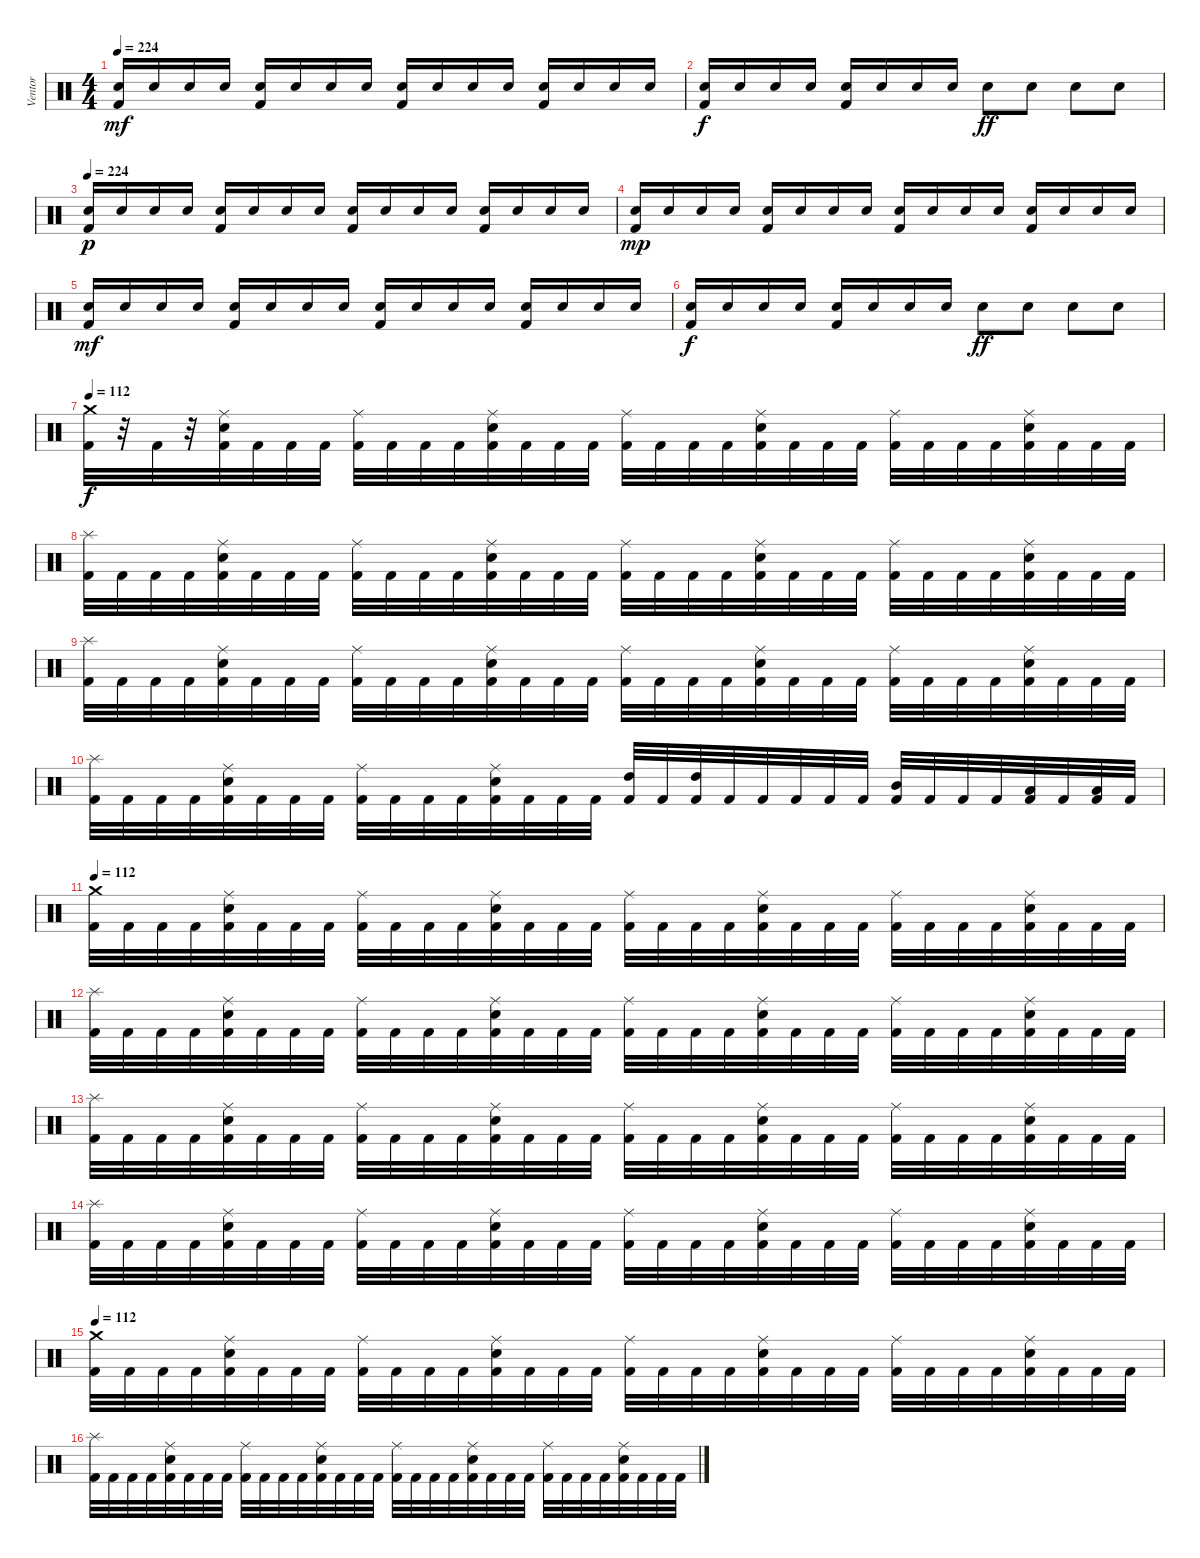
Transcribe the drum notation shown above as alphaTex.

\track ("Ventor" "Ventor") {instrument percussion}
\staff {score}
\articulation defaults
\ts (4 4)
\tempo 224
\clef neutral
\ks c
("Electric Snare (hit)" "Kick (hit) 2").16{dy mf} "Electric Snare (hit)".16 "Electric Snare (hit)".16 "Electric Snare (hit)".16 ("Electric Snare (hit)" "Kick (hit) 2").16 "Electric Snare (hit)".16 "Electric Snare (hit)".16 "Electric Snare (hit)".16 ("Electric Snare (hit)" "Kick (hit) 2").16 "Electric Snare (hit)".16 "Electric Snare (hit)".16 "Electric Snare (hit)".16 ("Electric Snare (hit)" "Kick (hit) 2").16 "Electric Snare (hit)".16 "Electric Snare (hit)".16 "Electric Snare (hit)".16 |
("Electric Snare (hit)" "Kick (hit) 2").16{dy f} "Electric Snare (hit)".16 "Electric Snare (hit)".16 "Electric Snare (hit)".16 ("Electric Snare (hit)" "Kick (hit) 2").16 "Electric Snare (hit)".16 "Electric Snare (hit)".16 "Electric Snare (hit)".16 "Electric Snare (hit)".8{dy ff} "Electric Snare (hit)".8 "Electric Snare (hit)".8 "Electric Snare (hit)".8 |
\tempo 224
("Electric Snare (hit)" "Kick (hit) 2").16{dy p} "Electric Snare (hit)".16 "Electric Snare (hit)".16 "Electric Snare (hit)".16 ("Electric Snare (hit)" "Kick (hit) 2").16 "Electric Snare (hit)".16 "Electric Snare (hit)".16 "Electric Snare (hit)".16 ("Electric Snare (hit)" "Kick (hit) 2").16 "Electric Snare (hit)".16 "Electric Snare (hit)".16 "Electric Snare (hit)".16 ("Electric Snare (hit)" "Kick (hit) 2").16 "Electric Snare (hit)".16 "Electric Snare (hit)".16 "Electric Snare (hit)".16 |
("Electric Snare (hit)" "Kick (hit) 2").16{dy mp} "Electric Snare (hit)".16 "Electric Snare (hit)".16 "Electric Snare (hit)".16 ("Electric Snare (hit)" "Kick (hit) 2").16 "Electric Snare (hit)".16 "Electric Snare (hit)".16 "Electric Snare (hit)".16 ("Electric Snare (hit)" "Kick (hit) 2").16 "Electric Snare (hit)".16 "Electric Snare (hit)".16 "Electric Snare (hit)".16 ("Electric Snare (hit)" "Kick (hit) 2").16 "Electric Snare (hit)".16 "Electric Snare (hit)".16 "Electric Snare (hit)".16 |
("Electric Snare (hit)" "Kick (hit) 2").16{dy mf} "Electric Snare (hit)".16 "Electric Snare (hit)".16 "Electric Snare (hit)".16 ("Electric Snare (hit)" "Kick (hit) 2").16 "Electric Snare (hit)".16 "Electric Snare (hit)".16 "Electric Snare (hit)".16 ("Electric Snare (hit)" "Kick (hit) 2").16 "Electric Snare (hit)".16 "Electric Snare (hit)".16 "Electric Snare (hit)".16 ("Electric Snare (hit)" "Kick (hit) 2").16 "Electric Snare (hit)".16 "Electric Snare (hit)".16 "Electric Snare (hit)".16 |
("Electric Snare (hit)" "Kick (hit) 2").16{dy f} "Electric Snare (hit)".16 "Electric Snare (hit)".16 "Electric Snare (hit)".16 ("Electric Snare (hit)" "Kick (hit) 2").16 "Electric Snare (hit)".16 "Electric Snare (hit)".16 "Electric Snare (hit)".16 "Electric Snare (hit)".8{dy ff} "Electric Snare (hit)".8 "Electric Snare (hit)".8 "Electric Snare (hit)".8 |
\tempo 112
("Crash medium (hit)" "Kick (hit) 2").32{dy f} r.32 "Kick (hit) 2".32 r.32 ("Ride (middle)" "Electric Snare (hit)" "Kick (hit) 2").32 "Kick (hit) 2".32 "Kick (hit) 2".32 "Kick (hit) 2".32 ("Ride (middle)" "Kick (hit) 2").32 "Kick (hit) 2".32 "Kick (hit) 2".32 "Kick (hit) 2".32 ("Ride (middle)" "Electric Snare (hit)" "Kick (hit) 2").32 "Kick (hit) 2".32 "Kick (hit) 2".32 "Kick (hit) 2".32 ("Ride (middle)" "Kick (hit) 2").32 "Kick (hit) 2".32 "Kick (hit) 2".32 "Kick (hit) 2".32 ("Ride (middle)" "Electric Snare (hit)" "Kick (hit) 2").32 "Kick (hit) 2".32 "Kick (hit) 2".32 "Kick (hit) 2".32 ("Ride (middle)" "Kick (hit) 2").32 "Kick (hit) 2".32 "Kick (hit) 2".32 "Kick (hit) 2".32 ("Ride (middle)" "Electric Snare (hit)" "Kick (hit) 2").32 "Kick (hit) 2".32 "Kick (hit) 2".32 "Kick (hit) 2".32 |
("Splash (hit)" "Kick (hit) 2").32 "Kick (hit) 2".32 "Kick (hit) 2".32 "Kick (hit) 2".32 ("Ride (middle)" "Electric Snare (hit)" "Kick (hit) 2").32 "Kick (hit) 2".32 "Kick (hit) 2".32 "Kick (hit) 2".32 ("Ride (middle)" "Kick (hit) 2").32 "Kick (hit) 2".32 "Kick (hit) 2".32 "Kick (hit) 2".32 ("Ride (middle)" "Electric Snare (hit)" "Kick (hit) 2").32 "Kick (hit) 2".32 "Kick (hit) 2".32 "Kick (hit) 2".32 ("Ride (middle)" "Kick (hit) 2").32 "Kick (hit) 2".32 "Kick (hit) 2".32 "Kick (hit) 2".32 ("Ride (middle)" "Electric Snare (hit)" "Kick (hit) 2").32 "Kick (hit) 2".32 "Kick (hit) 2".32 "Kick (hit) 2".32 ("Ride (middle)" "Kick (hit) 2").32 "Kick (hit) 2".32 "Kick (hit) 2".32 "Kick (hit) 2".32 ("Ride (middle)" "Electric Snare (hit)" "Kick (hit) 2").32 "Kick (hit) 2".32 "Kick (hit) 2".32 "Kick (hit) 2".32 |
("Splash (hit)" "Kick (hit) 2").32 "Kick (hit) 2".32 "Kick (hit) 2".32 "Kick (hit) 2".32 ("Ride (middle)" "Electric Snare (hit)" "Kick (hit) 2").32 "Kick (hit) 2".32 "Kick (hit) 2".32 "Kick (hit) 2".32 ("Ride (middle)" "Kick (hit) 2").32 "Kick (hit) 2".32 "Kick (hit) 2".32 "Kick (hit) 2".32 ("Ride (middle)" "Electric Snare (hit)" "Kick (hit) 2").32 "Kick (hit) 2".32 "Kick (hit) 2".32 "Kick (hit) 2".32 ("Ride (middle)" "Kick (hit) 2").32 "Kick (hit) 2".32 "Kick (hit) 2".32 "Kick (hit) 2".32 ("Ride (middle)" "Electric Snare (hit)" "Kick (hit) 2").32 "Kick (hit) 2".32 "Kick (hit) 2".32 "Kick (hit) 2".32 ("Ride (middle)" "Kick (hit) 2").32 "Kick (hit) 2".32 "Kick (hit) 2".32 "Kick (hit) 2".32 ("Ride (middle)" "Electric Snare (hit)" "Kick (hit) 2").32 "Kick (hit) 2".32 "Kick (hit) 2".32 "Kick (hit) 2".32 |
("Splash (hit)" "Kick (hit) 2").32 "Kick (hit) 2".32 "Kick (hit) 2".32 "Kick (hit) 2".32 ("Ride (middle)" "Electric Snare (hit)" "Kick (hit) 2").32 "Kick (hit) 2".32 "Kick (hit) 2".32 "Kick (hit) 2".32 ("Ride (middle)" "Kick (hit) 2").32 "Kick (hit) 2".32 "Kick (hit) 2".32 "Kick (hit) 2".32 ("Ride (middle)" "Electric Snare (hit)" "Kick (hit) 2").32 "Kick (hit) 2".32 "Kick (hit) 2".32 "Kick (hit) 2".32 ("High Tom (hit)" "Kick (hit) 2").32 "Kick (hit) 2".32 ("High Tom (hit)" "Kick (hit) 2").32 "Kick (hit) 2".32 "Kick (hit) 2".32 "Kick (hit) 2".32 "Kick (hit) 2".32 "Kick (hit) 2".32 ("Mid Tom (hit)" "Kick (hit) 2").32 "Kick (hit) 2".32 "Kick (hit) 2".32 "Kick (hit) 2".32 ("Low Tom (hit)" "Kick (hit) 2").32 "Kick (hit) 2".32 ("Low Tom (hit)" "Kick (hit) 2").32 "Kick (hit) 2".32 |
\tempo 112
("Crash medium (hit)" "Kick (hit) 2").32 "Kick (hit) 2".32 "Kick (hit) 2".32 "Kick (hit) 2".32 ("Ride (middle)" "Electric Snare (hit)" "Kick (hit) 2").32 "Kick (hit) 2".32 "Kick (hit) 2".32 "Kick (hit) 2".32 ("Ride (middle)" "Kick (hit) 2").32 "Kick (hit) 2".32 "Kick (hit) 2".32 "Kick (hit) 2".32 ("Ride (middle)" "Electric Snare (hit)" "Kick (hit) 2").32 "Kick (hit) 2".32 "Kick (hit) 2".32 "Kick (hit) 2".32 ("Ride (middle)" "Kick (hit) 2").32 "Kick (hit) 2".32 "Kick (hit) 2".32 "Kick (hit) 2".32 ("Ride (middle)" "Electric Snare (hit)" "Kick (hit) 2").32 "Kick (hit) 2".32 "Kick (hit) 2".32 "Kick (hit) 2".32 ("Ride (middle)" "Kick (hit) 2").32 "Kick (hit) 2".32 "Kick (hit) 2".32 "Kick (hit) 2".32 ("Ride (middle)" "Electric Snare (hit)" "Kick (hit) 2").32 "Kick (hit) 2".32 "Kick (hit) 2".32 "Kick (hit) 2".32 |
("Splash (hit)" "Kick (hit) 2").32 "Kick (hit) 2".32 "Kick (hit) 2".32 "Kick (hit) 2".32 ("Ride (middle)" "Electric Snare (hit)" "Kick (hit) 2").32 "Kick (hit) 2".32 "Kick (hit) 2".32 "Kick (hit) 2".32 ("Ride (middle)" "Kick (hit) 2").32 "Kick (hit) 2".32 "Kick (hit) 2".32 "Kick (hit) 2".32 ("Ride (middle)" "Electric Snare (hit)" "Kick (hit) 2").32 "Kick (hit) 2".32 "Kick (hit) 2".32 "Kick (hit) 2".32 ("Ride (middle)" "Kick (hit) 2").32 "Kick (hit) 2".32 "Kick (hit) 2".32 "Kick (hit) 2".32 ("Ride (middle)" "Electric Snare (hit)" "Kick (hit) 2").32 "Kick (hit) 2".32 "Kick (hit) 2".32 "Kick (hit) 2".32 ("Ride (middle)" "Kick (hit) 2").32 "Kick (hit) 2".32 "Kick (hit) 2".32 "Kick (hit) 2".32 ("Ride (middle)" "Electric Snare (hit)" "Kick (hit) 2").32 "Kick (hit) 2".32 "Kick (hit) 2".32 "Kick (hit) 2".32 |
("Splash (hit)" "Kick (hit) 2").32 "Kick (hit) 2".32 "Kick (hit) 2".32 "Kick (hit) 2".32 ("Ride (middle)" "Electric Snare (hit)" "Kick (hit) 2").32 "Kick (hit) 2".32 "Kick (hit) 2".32 "Kick (hit) 2".32 ("Ride (middle)" "Kick (hit) 2").32 "Kick (hit) 2".32 "Kick (hit) 2".32 "Kick (hit) 2".32 ("Ride (middle)" "Electric Snare (hit)" "Kick (hit) 2").32 "Kick (hit) 2".32 "Kick (hit) 2".32 "Kick (hit) 2".32 ("Ride (middle)" "Kick (hit) 2").32 "Kick (hit) 2".32 "Kick (hit) 2".32 "Kick (hit) 2".32 ("Ride (middle)" "Electric Snare (hit)" "Kick (hit) 2").32 "Kick (hit) 2".32 "Kick (hit) 2".32 "Kick (hit) 2".32 ("Ride (middle)" "Kick (hit) 2").32 "Kick (hit) 2".32 "Kick (hit) 2".32 "Kick (hit) 2".32 ("Ride (middle)" "Electric Snare (hit)" "Kick (hit) 2").32 "Kick (hit) 2".32 "Kick (hit) 2".32 "Kick (hit) 2".32 |
("Splash (hit)" "Kick (hit) 2").32 "Kick (hit) 2".32 "Kick (hit) 2".32 "Kick (hit) 2".32 ("Ride (middle)" "Electric Snare (hit)" "Kick (hit) 2").32 "Kick (hit) 2".32 "Kick (hit) 2".32 "Kick (hit) 2".32 ("Ride (middle)" "Kick (hit) 2").32 "Kick (hit) 2".32 "Kick (hit) 2".32 "Kick (hit) 2".32 ("Ride (middle)" "Electric Snare (hit)" "Kick (hit) 2").32 "Kick (hit) 2".32 "Kick (hit) 2".32 "Kick (hit) 2".32 ("Ride (middle)" "Kick (hit) 2").32 "Kick (hit) 2".32 "Kick (hit) 2".32 "Kick (hit) 2".32 ("Ride (middle)" "Electric Snare (hit)" "Kick (hit) 2").32 "Kick (hit) 2".32 "Kick (hit) 2".32 "Kick (hit) 2".32 ("Ride (middle)" "Kick (hit) 2").32 "Kick (hit) 2".32 "Kick (hit) 2".32 "Kick (hit) 2".32 ("Ride (middle)" "Electric Snare (hit)" "Kick (hit) 2").32 "Kick (hit) 2".32 "Kick (hit) 2".32 "Kick (hit) 2".32 |
\tempo 112
("Crash medium (hit)" "Kick (hit) 2").32 "Kick (hit) 2".32 "Kick (hit) 2".32 "Kick (hit) 2".32 ("Ride (middle)" "Electric Snare (hit)" "Kick (hit) 2").32 "Kick (hit) 2".32 "Kick (hit) 2".32 "Kick (hit) 2".32 ("Ride (middle)" "Kick (hit) 2").32 "Kick (hit) 2".32 "Kick (hit) 2".32 "Kick (hit) 2".32 ("Ride (middle)" "Electric Snare (hit)" "Kick (hit) 2").32 "Kick (hit) 2".32 "Kick (hit) 2".32 "Kick (hit) 2".32 ("Ride (middle)" "Kick (hit) 2").32 "Kick (hit) 2".32 "Kick (hit) 2".32 "Kick (hit) 2".32 ("Ride (middle)" "Electric Snare (hit)" "Kick (hit) 2").32 "Kick (hit) 2".32 "Kick (hit) 2".32 "Kick (hit) 2".32 ("Ride (middle)" "Kick (hit) 2").32 "Kick (hit) 2".32 "Kick (hit) 2".32 "Kick (hit) 2".32 ("Ride (middle)" "Electric Snare (hit)" "Kick (hit) 2").32 "Kick (hit) 2".32 "Kick (hit) 2".32 "Kick (hit) 2".32 |
("Splash (hit)" "Kick (hit) 2").32 "Kick (hit) 2".32 "Kick (hit) 2".32 "Kick (hit) 2".32 ("Ride (middle)" "Electric Snare (hit)" "Kick (hit) 2").32 "Kick (hit) 2".32 "Kick (hit) 2".32 "Kick (hit) 2".32 ("Ride (middle)" "Kick (hit) 2").32 "Kick (hit) 2".32 "Kick (hit) 2".32 "Kick (hit) 2".32 ("Ride (middle)" "Electric Snare (hit)" "Kick (hit) 2").32 "Kick (hit) 2".32 "Kick (hit) 2".32 "Kick (hit) 2".32 ("Ride (middle)" "Kick (hit) 2").32 "Kick (hit) 2".32 "Kick (hit) 2".32 "Kick (hit) 2".32 ("Ride (middle)" "Electric Snare (hit)" "Kick (hit) 2").32 "Kick (hit) 2".32 "Kick (hit) 2".32 "Kick (hit) 2".32 ("Ride (middle)" "Kick (hit) 2").32 "Kick (hit) 2".32 "Kick (hit) 2".32 "Kick (hit) 2".32 ("Ride (middle)" "Electric Snare (hit)" "Kick (hit) 2").32 "Kick (hit) 2".32 "Kick (hit) 2".32 "Kick (hit) 2".32
